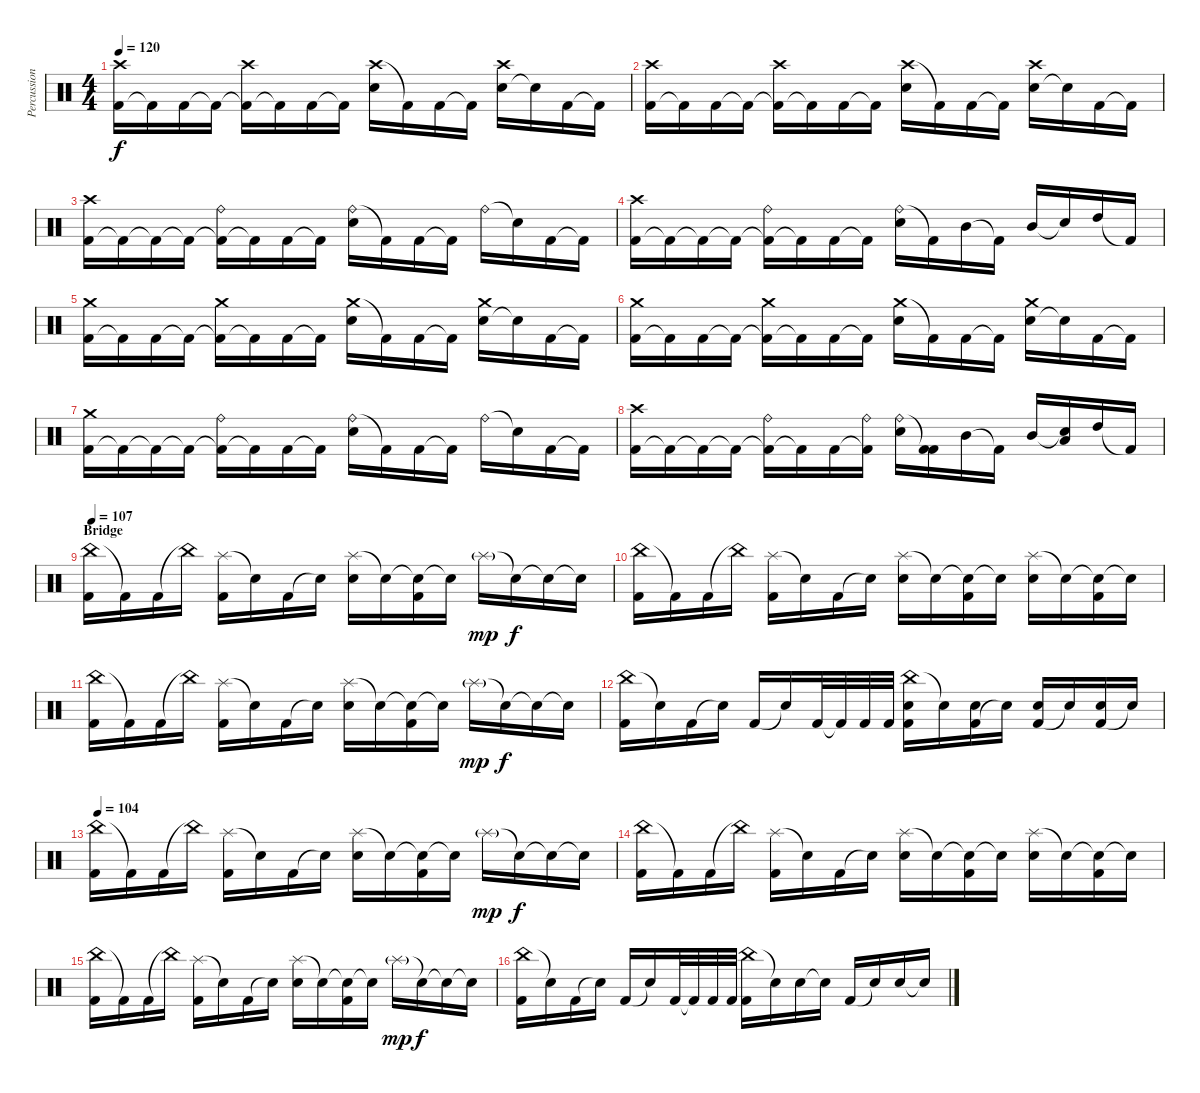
\track ("Percussion" "Percussion") {instrument percussion}
\staff {score}
\articulation defaults
\ts (4 4)
\tempo 120
\clef neutral
\ks c
("Kick (hit) 2" "Crash high (hit)").16{dy f} "Kick (hit) 2"{t}.16 "Kick (hit) 2".16 "Kick (hit) 2"{t}.16 ("Kick (hit) 2"{t} "Crash high (hit)").16 "Kick (hit) 2"{t}.16 "Kick (hit) 2".16 "Kick (hit) 2"{t}.16 ("Crash high (hit)" "Electric Snare (hit)").16 "Kick (hit) 2"{t}.16 "Kick (hit) 2".16 "Kick (hit) 2"{t}.16 ("Electric Snare (hit)" "Crash high (hit)").16 "Snare (hit)"{t}.16 "Kick (hit) 2".16 "Kick (hit) 2"{t}.16 |
("Kick (hit) 2" "Crash high (hit)").16 "Kick (hit) 2"{t}.16 "Kick (hit) 2".16 "Kick (hit) 2"{t}.16 ("Kick (hit) 2"{t} "Crash high (hit)").16 "Kick (hit) 2"{t}.16 "Kick (hit) 2".16 "Kick (hit) 2"{t}.16 ("Crash high (hit)" "Electric Snare (hit)").16 "Kick (hit) 2"{t}.16 "Kick (hit) 2".16 "Kick (hit) 2"{t}.16 ("Electric Snare (hit)" "Crash high (hit)").16 "Snare (hit)"{t}.16 "Kick (hit) 2".16 "Kick (hit) 2"{t}.16 |
("Kick (hit) 2" "Crash high (hit)").16 "Kick (hit) 2"{t}.16 "Kick (hit) 2"{t}.16 "Kick (hit) 2"{t}.16 ("Kick (hit) 2"{t} "Ride (bell)").16 "Kick (hit) 2"{t}.16 "Kick (hit) 2".16 "Kick (hit) 2"{t}.16 ("Ride (bell)" "Electric Snare (hit)").16 "Kick (hit) 2"{t}.16 "Kick (hit) 2".16 "Kick (hit) 2"{t}.16 "Ride (bell)".16 "Snare (hit)"{t}.16 "Kick (hit) 2".16 "Kick (hit) 2"{t}.16 |
("Kick (hit) 2" "Crash high (hit)").16 "Kick (hit) 2"{t}.16 "Kick (hit) 2"{t}.16 "Kick (hit) 2"{t}.16 ("Kick (hit) 2"{t} "Ride (bell)").16 "Kick (hit) 2"{t}.16 "Kick (hit) 2".16 "Kick (hit) 2"{t}.16 ("Ride (bell)" "Electric Snare (hit)").16 "Kick (hit) 2"{t}.16 "Mid Tom (hit)".16 "Kick (hit) 2"{t}.16 "Mid Tom (hit)".16 "Snare (hit)"{t}.16 "High Tom (hit)".16 "Kick (hit) 2"{t}.16 |
("Kick (hit) 2" "Crash medium (hit)").16 "Kick (hit) 2"{t}.16 "Kick (hit) 2".16 "Kick (hit) 2"{t}.16 ("Kick (hit) 2"{t} "Crash medium (hit)").16 "Kick (hit) 2"{t}.16 "Kick (hit) 2".16 "Kick (hit) 2"{t}.16 ("Crash medium (hit)" "Electric Snare (hit)").16 "Kick (hit) 2"{t}.16 "Kick (hit) 2".16 "Kick (hit) 2"{t}.16 ("Electric Snare (hit)" "Crash medium (hit)").16 "Snare (hit)"{t}.16 "Kick (hit) 2".16 "Kick (hit) 2"{t}.16 |
("Kick (hit) 2" "Crash medium (hit)").16 "Kick (hit) 2"{t}.16 "Kick (hit) 2".16 "Kick (hit) 2"{t}.16 ("Kick (hit) 2"{t} "Crash medium (hit)").16 "Kick (hit) 2"{t}.16 "Kick (hit) 2".16 "Kick (hit) 2"{t}.16 ("Crash medium (hit)" "Electric Snare (hit)").16 "Kick (hit) 2"{t}.16 "Kick (hit) 2".16 "Kick (hit) 2"{t}.16 ("Electric Snare (hit)" "Crash medium (hit)").16 "Snare (hit)"{t}.16 "Kick (hit) 2".16 "Kick (hit) 2"{t}.16 |
("Kick (hit) 2" "Crash medium (hit)").16 "Kick (hit) 2"{t}.16 "Kick (hit) 2"{t}.16 "Kick (hit) 2"{t}.16 ("Kick (hit) 2"{t} "Ride (bell)").16 "Kick (hit) 2"{t}.16 "Kick (hit) 2".16 "Kick (hit) 2"{t}.16 ("Ride (bell)" "Electric Snare (hit)").16 "Kick (hit) 2"{t}.16 "Kick (hit) 2".16 "Kick (hit) 2"{t}.16 "Ride (bell)".16 "Snare (hit)"{t}.16 "Kick (hit) 2".16 "Kick (hit) 2"{t}.16 |
("Kick (hit) 2" "Crash high (hit)").16 "Kick (hit) 2"{t}.16 "Kick (hit) 2"{t}.16 "Kick (hit) 2"{t}.16 ("Kick (hit) 2"{t} "Ride (bell)").16 "Kick (hit) 2"{t}.16 "Kick (hit) 2".16 ("Kick (hit) 2"{t} "Ride (bell)").16 ("Ride (bell)" "Electric Snare (hit)").16 ("Kick (hit) 2"{t} "Kick (hit) 2").16 "Mid Tom (hit)".16 "Kick (hit) 2"{t}.16 "Mid Tom (hit)".16 ("Snare (hit)"{t} "Low Tom (hit)").16 "High Tom (hit)".16 "Kick (hit) 2"{t}.16 |
\section ("" "Bridge")
\tempo 107
("China (hit)" "Kick (hit) 2").16 "Kick (hit) 2"{t}.16 "Kick (hit) 2".16 "China (hit)"{t}.16 ("Splash (hit)" "Kick (hit) 2").16 "Snare (hit)"{t}.16 "Kick (hit) 2".16 "Snare (hit)"{t}.16 ("Splash (hit)" "Electric Snare (hit)").16 "Snare (hit)"{t}.16 ("Snare (hit)"{t} "Kick (hit) 2").16 "Snare (hit)"{t}.16 "Splash (hit)"{g}.16{dy mp} "Snare (hit)"{t}.16{dy f} "Snare (hit)"{t}.16 "Snare (hit)"{t}.16 |
("China (hit)" "Kick (hit) 2").16 "Kick (hit) 2"{t}.16 "Kick (hit) 2".16 "China (hit)"{t}.16 ("Splash (hit)" "Kick (hit) 2").16 "Snare (hit)"{t}.16 "Kick (hit) 2".16 "Snare (hit)"{t}.16 ("Splash (hit)" "Electric Snare (hit)").16 "Snare (hit)"{t}.16 ("Snare (hit)"{t} "Kick (hit) 2").16 "Snare (hit)"{t}.16 ("Splash (hit)" "Electric Snare (hit)").16 "Snare (hit)"{t}.16 ("Snare (hit)"{t} "Kick (hit) 2").16 "Snare (hit)"{t}.16 |
("China (hit)" "Kick (hit) 2").16 "Kick (hit) 2"{t}.16 "Kick (hit) 2".16 "China (hit)"{t}.16 ("Splash (hit)" "Kick (hit) 2").16 "Snare (hit)"{t}.16 "Kick (hit) 2".16 "Snare (hit)"{t}.16 ("Splash (hit)" "Electric Snare (hit)").16 "Snare (hit)"{t}.16 ("Snare (hit)"{t} "Kick (hit) 2").16 "Snare (hit)"{t}.16 "Splash (hit)"{g}.16{dy mp} "Snare (hit)"{t}.16{dy f} "Snare (hit)"{t}.16 "Snare (hit)"{t}.16 |
("China (hit)" "Kick (hit) 2").16 "Snare (hit)"{t}.16 "Kick (hit) 2".16 "Snare (hit)"{t}.16 "Kick (hit) 2".16 "Snare (hit)"{t}.16 "Kick (hit) 2".32 "Kick (hit) 2"{t}.32 "Kick (hit) 2".32 "Kick (hit) 2".32 ("China (hit)" "Kick (hit) 2" "Electric Snare (hit)").16 "Snare (hit)"{t}.16 ("Kick (hit) 2" "Electric Snare (hit)").16 "Snare (hit)"{t}.16 ("Kick (hit) 2" "Electric Snare (hit)").16 "Snare (hit)"{t}.16 ("Kick (hit) 2" "Electric Snare (hit)").16 "Snare (hit)"{t}.16 |
\tempo 104
("China (hit)" "Kick (hit) 2").16 "Kick (hit) 2"{t}.16 "Kick (hit) 2".16 "China (hit)"{t}.16 ("Splash (hit)" "Kick (hit) 2").16 "Snare (hit)"{t}.16 "Kick (hit) 2".16 "Snare (hit)"{t}.16 ("Splash (hit)" "Electric Snare (hit)").16 "Snare (hit)"{t}.16 ("Snare (hit)"{t} "Kick (hit) 2").16 "Snare (hit)"{t}.16 "Splash (hit)"{g}.16{dy mp} "Snare (hit)"{t}.16{dy f} "Snare (hit)"{t}.16 "Snare (hit)"{t}.16 |
("China (hit)" "Kick (hit) 2").16 "Kick (hit) 2"{t}.16 "Kick (hit) 2".16 "China (hit)"{t}.16 ("Splash (hit)" "Kick (hit) 2").16 "Snare (hit)"{t}.16 "Kick (hit) 2".16 "Snare (hit)"{t}.16 ("Splash (hit)" "Electric Snare (hit)").16 "Snare (hit)"{t}.16 ("Snare (hit)"{t} "Kick (hit) 2").16 "Snare (hit)"{t}.16 ("Splash (hit)" "Electric Snare (hit)").16 "Snare (hit)"{t}.16 ("Snare (hit)"{t} "Kick (hit) 2").16 "Snare (hit)"{t}.16 |
("China (hit)" "Kick (hit) 2").16 "Kick (hit) 2"{t}.16 "Kick (hit) 2".16 "China (hit)"{t}.16 ("Splash (hit)" "Kick (hit) 2").16 "Snare (hit)"{t}.16 "Kick (hit) 2".16 "Snare (hit)"{t}.16 ("Splash (hit)" "Electric Snare (hit)").16 "Snare (hit)"{t}.16 ("Snare (hit)"{t} "Kick (hit) 2").16 "Snare (hit)"{t}.16 "Splash (hit)"{g}.16{dy mp} "Snare (hit)"{t}.16{dy f} "Snare (hit)"{t}.16 "Snare (hit)"{t}.16 |
("China (hit)" "Kick (hit) 2").16 "Snare (hit)"{t}.16 "Kick (hit) 2".16 "Snare (hit)"{t}.16 "Kick (hit) 2".16 "Snare (hit)"{t}.16 "Kick (hit) 2".32 "Kick (hit) 2"{t}.32 "Kick (hit) 2".32 "Kick (hit) 2".32 ("China (hit)" "Kick (hit) 2").16 "Snare (hit)"{t}.16 "Electric Snare (hit)".16 "Snare (hit)"{t}.16 "Kick (hit) 2".16 "Snare (hit)"{t}.16 "Electric Snare (hit)".16 "Snare (hit)"{t}.16
